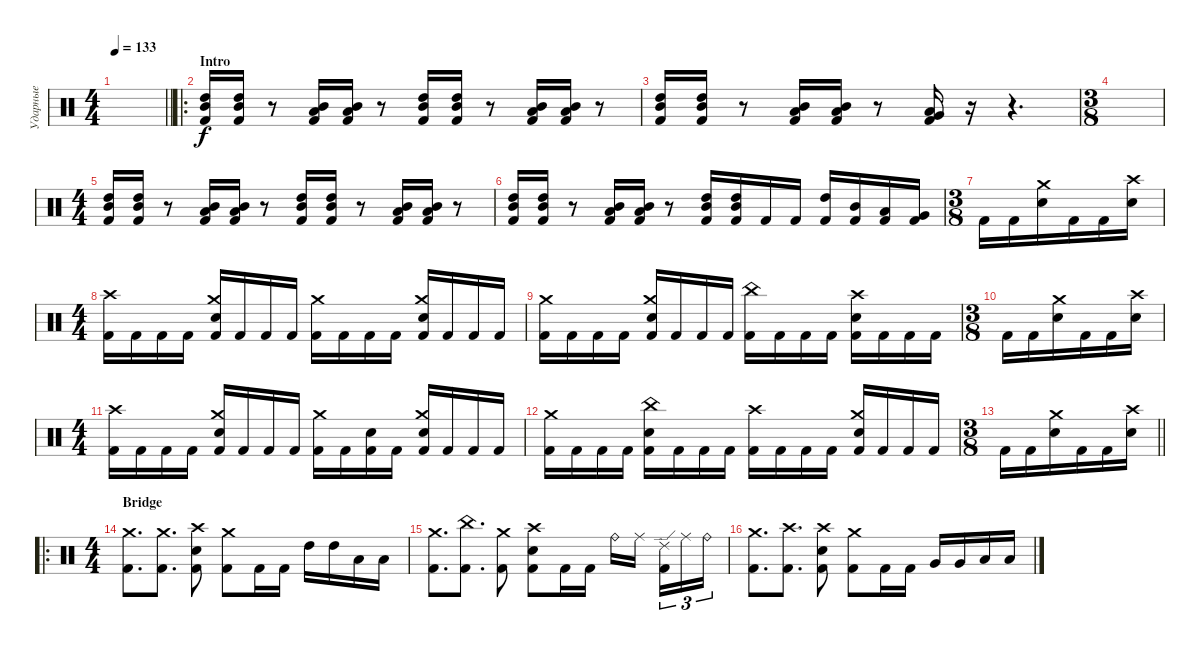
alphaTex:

\track ("Ударные" "Ударные") {instrument percussion}
\staff {score}
\articulation defaults
\ts (4 4)
\tempo 133
\clef neutral
\barLineRight lightlight
\ks c
|
\ro
\section ("" "Intro")
("High Tom (hit)" "Mid Tom (hit)" "Kick (hit) 2").16 ("High Tom (hit)" "Mid Tom (hit)" "Kick (hit) 2").16 r.8 ("Mid Tom (hit)" "Low Tom (hit)" "Kick (hit) 2").16 ("Mid Tom (hit)" "Low Tom (hit)" "Kick (hit) 2").16 r.8 ("High Tom (hit)" "Mid Tom (hit)" "Kick (hit) 2").16 ("High Tom (hit)" "Mid Tom (hit)" "Kick (hit) 2").16 r.8 ("Mid Tom (hit)" "Low Tom (hit)" "Kick (hit) 2").16 ("Mid Tom (hit)" "Low Tom (hit)" "Kick (hit) 2").16 r.8 |
("High Tom (hit)" "Mid Tom (hit)" "Kick (hit) 2").16 ("High Tom (hit)" "Mid Tom (hit)" "Kick (hit) 2").16 r.8 ("Mid Tom (hit)" "Low Tom (hit)" "Kick (hit) 2").16 ("Mid Tom (hit)" "Low Tom (hit)" "Kick (hit) 2").16 r.8 ("Very Low Tom (hit)" "Low Floor Tom (hit)" "Kick (hit) 2").16 r.16 r.4{d} |
\ts (3 8)
|
\ts (4 4)
("High Tom (hit)" "Mid Tom (hit)" "Kick (hit) 2").16 ("High Tom (hit)" "Mid Tom (hit)" "Kick (hit) 2").16 r.8 ("Mid Tom (hit)" "Low Tom (hit)" "Kick (hit) 2").16 ("Mid Tom (hit)" "Low Tom (hit)" "Kick (hit) 2").16 r.8 ("High Tom (hit)" "Mid Tom (hit)" "Kick (hit) 2").16 ("High Tom (hit)" "Mid Tom (hit)" "Kick (hit) 2").16 r.8 ("Mid Tom (hit)" "Low Tom (hit)" "Kick (hit) 2").16 ("Mid Tom (hit)" "Low Tom (hit)" "Kick (hit) 2").16 r.8 |
("High Tom (hit)" "Mid Tom (hit)" "Kick (hit) 2").16 ("High Tom (hit)" "Mid Tom (hit)" "Kick (hit) 2").16 r.8 ("Mid Tom (hit)" "Low Tom (hit)" "Kick (hit) 2").16 ("Mid Tom (hit)" "Low Tom (hit)" "Kick (hit) 2").16 r.8 ("High Tom (hit)" "Mid Tom (hit)" "Kick (hit) 2").16 ("High Tom (hit)" "Mid Tom (hit)" "Kick (hit) 2").16 "Kick (hit) 2".16 "Kick (hit) 2".16 ("High Tom (hit)" "Kick (hit) 2").16 ("Mid Tom (hit)" "Kick (hit) 2").16 ("Low Tom (hit)" "Kick (hit) 2").16 ("Very Low Tom (hit)" "Kick (hit) 2").16 |
\ts (3 8)
"Kick (hit) 2".16 "Kick (hit) 2".16 ("Crash medium (hit)" "Snare (hit) 2").16 "Kick (hit) 2".16 "Kick (hit) 2".16 ("Crash high (hit)" "Snare (hit) 2").16 |
\ts (4 4)
("Crash high (hit)" "Kick (hit) 2").16 "Kick (hit) 2".16 "Kick (hit) 2".16 "Kick (hit) 2".16 ("Crash medium (hit)" "Snare (hit) 2" "Kick (hit) 2").16 "Kick (hit) 2".16 "Kick (hit) 2".16 "Kick (hit) 2".16 ("Crash medium (hit)" "Kick (hit) 2").16 "Kick (hit) 2".16 "Kick (hit) 2".16 "Kick (hit) 2".16 ("Crash medium (hit)" "Snare (hit) 2" "Kick (hit) 2").16 "Kick (hit) 2".16 "Kick (hit) 2".16 "Kick (hit) 2".16 |
("Crash medium (hit)" "Kick (hit) 2").16 "Kick (hit) 2".16 "Kick (hit) 2".16 "Kick (hit) 2".16 ("Crash medium (hit)" "Snare (hit) 2" "Kick (hit) 2").16 "Kick (hit) 2".16 "Kick (hit) 2".16 "Kick (hit) 2".16 ("China (hit)" "Kick (hit) 2").16 "Kick (hit) 2".16 "Kick (hit) 2".16 "Kick (hit) 2".16 ("Crash high (hit)" "Snare (hit) 2" "Kick (hit) 2").16 "Kick (hit) 2".16 "Kick (hit) 2".16 "Kick (hit) 2".16 |
\ts (3 8)
"Kick (hit) 2".16 "Kick (hit) 2".16 ("Crash medium (hit)" "Snare (hit) 2").16 "Kick (hit) 2".16 "Kick (hit) 2".16 ("Crash high (hit)" "Snare (hit) 2").16 |
\ts (4 4)
("Crash high (hit)" "Kick (hit) 2").16 "Kick (hit) 2".16 "Kick (hit) 2".16 "Kick (hit) 2".16 ("Crash medium (hit)" "Snare (hit) 2" "Kick (hit) 2").16 "Kick (hit) 2".16 "Kick (hit) 2".16 "Kick (hit) 2".16 ("Crash medium (hit)" "Kick (hit) 2").16 "Kick (hit) 2".16 ("Snare (hit) 2" "Kick (hit) 2").16 "Kick (hit) 2".16 ("Crash medium (hit)" "Snare (hit) 2" "Kick (hit) 2").16 "Kick (hit) 2".16 "Kick (hit) 2".16 "Kick (hit) 2".16 |
("Crash medium (hit)" "Kick (hit) 2").16 "Kick (hit) 2".16 "Kick (hit) 2".16 "Kick (hit) 2".16 ("China (hit)" "Snare (hit) 2" "Kick (hit) 2").16 "Kick (hit) 2".16 "Kick (hit) 2".16 "Kick (hit) 2".16 ("Crash high (hit)" "Kick (hit) 2").16 "Kick (hit) 2".16 "Kick (hit) 2".16 "Kick (hit) 2".16 ("Crash medium (hit)" "Snare (hit) 2" "Kick (hit) 2").16 "Kick (hit) 2".16 "Kick (hit) 2".16 "Kick (hit) 2".16 |
\ts (3 8)
\barLineRight lightlight "Kick (hit) 2".16 "Kick (hit) 2".16
("Crash medium (hit)" "Snare (hit) 2").16 "Kick (hit) 2".16 "Kick (hit) 2".16 ("Crash high (hit)" "Snare (hit) 2").16 |
\ro
\ts (4 4)
\section ("" "Bridge")
("Crash medium (hit)" "Kick (hit) 2").8{d} ("Crash medium (hit)" "Kick (hit) 2").8{d} ("Crash high (hit)" "Snare (hit) 2" "Kick (hit) 2").8 ("Crash medium (hit)" "Kick (hit) 2").8 "Kick (hit) 2".16 "Kick (hit) 2".16 "High Tom (hit)".16 "High Tom (hit)".16 "Low Tom (hit)".16 "Low Tom (hit)".16 |
("Crash medium (hit)" "Kick (hit) 2").8{d} ("China (hit)" "Kick (hit) 2").8{d} ("Crash medium (hit)" "Kick (hit) 2").8 ("Crash high (hit)" "Snare (hit) 2" "Kick (hit) 2").8 "Kick (hit) 2".16 "Kick (hit) 2".16 "Ride (bell)".16 "Ride (middle)".16{beam splitsecondary} ("Ride (edge) 2" "Kick (hit) 2").16{tu (3 2)} "Ride (middle)".16{tu (3 2)} "Ride (bell)".16{tu (3 2)} |
("Crash medium (hit)" "Kick (hit) 2").8{d} ("Crash high (hit)" "Kick (hit) 2").8{d} ("Crash high (hit)" "Snare (hit) 2" "Kick (hit) 2").8 ("Crash medium (hit)" "Kick (hit) 2").8 "Kick (hit) 2".16 "Kick (hit) 2".16 "Very Low Tom (hit)".16 "Very Low Tom (hit)".16 "Low Floor Tom (hit)".16 "Low Floor Tom (hit)".16
